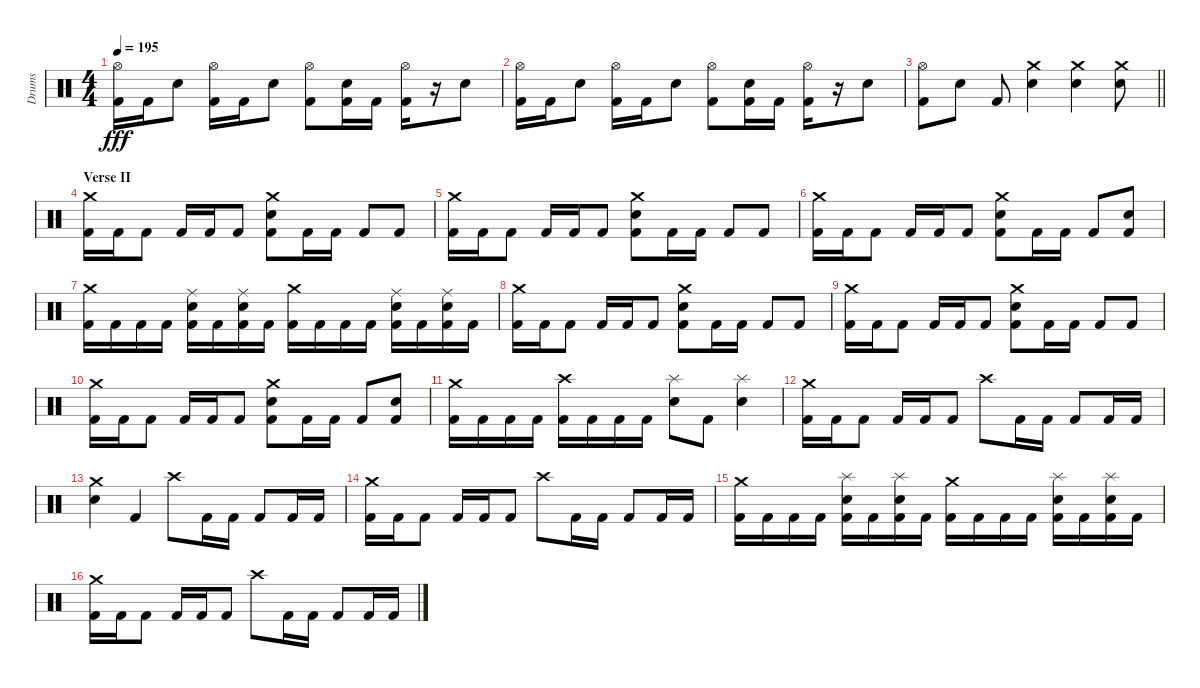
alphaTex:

\track ("Drums" "Drums") {instrument percussion}
\staff {score}
\articulation defaults
\ts (4 4)
\tempo 195
\clef neutral
\ks c
("Hi-Hat (open)" "Kick (hit) 2").16{dy fff} "Kick (hit) 2".16 "Electric Snare (hit)".8 ("Hi-Hat (open)" "Kick (hit) 2").16 "Kick (hit) 2".16 "Electric Snare (hit)".8 ("Hi-Hat (open)" "Kick (hit) 2").8 ("Electric Snare (hit)" "Kick (hit) 2").16 "Kick (hit) 2".16 ("Hi-Hat (open)" "Kick (hit) 2").16 r.16 "Electric Snare (hit)".8 |
("Hi-Hat (open)" "Kick (hit) 2").16 "Kick (hit) 2".16 "Electric Snare (hit)".8 ("Hi-Hat (open)" "Kick (hit) 2").16 "Kick (hit) 2".16 "Electric Snare (hit)".8 ("Hi-Hat (open)" "Kick (hit) 2").8 ("Electric Snare (hit)" "Kick (hit) 2").16 "Kick (hit) 2".16 ("Hi-Hat (open)" "Kick (hit) 2").16 r.16 "Electric Snare (hit)".8 |
\barLineRight lightlight
("Hi-Hat (open)" "Kick (hit) 2").8 "Electric Snare (hit)".8 "Kick (hit) 2".8 ("Crash medium (hit)" "Electric Snare (hit)").4 ("Crash medium (hit)" "Electric Snare (hit)").4 ("Crash medium (hit)" "Electric Snare (hit)").8 |
\section ("" "Verse II")
("Crash medium (hit)" "Kick (hit) 2").16 "Kick (hit) 2".16 "Kick (hit) 2".8 "Kick (hit) 2".16 "Kick (hit) 2".16 "Kick (hit) 2".8 ("Crash medium (hit)" "Electric Snare (hit)" "Kick (hit) 2").8 "Kick (hit) 2".16 "Kick (hit) 2".16 "Kick (hit) 2".8 "Kick (hit) 2".8 |
("Crash medium (hit)" "Kick (hit) 2").16 "Kick (hit) 2".16 "Kick (hit) 2".8 "Kick (hit) 2".16 "Kick (hit) 2".16 "Kick (hit) 2".8 ("Crash medium (hit)" "Electric Snare (hit)" "Kick (hit) 2").8 "Kick (hit) 2".16 "Kick (hit) 2".16 "Kick (hit) 2".8 "Kick (hit) 2".8 |
("Crash medium (hit)" "Kick (hit) 2").16 "Kick (hit) 2".16 "Kick (hit) 2".8 "Kick (hit) 2".16 "Kick (hit) 2".16 "Kick (hit) 2".8 ("Crash medium (hit)" "Electric Snare (hit)" "Kick (hit) 2").8 "Kick (hit) 2".16 "Kick (hit) 2".16 "Kick (hit) 2".8 ("Electric Snare (hit)" "Kick (hit) 2").8 |
("Crash medium (hit)" "Kick (hit) 2").16 "Kick (hit) 2".16 "Kick (hit) 2".16 "Kick (hit) 2".16 ("Ride (middle)" "Electric Snare (hit)" "Kick (hit) 2").16 "Kick (hit) 2".16 ("Ride (middle)" "Electric Snare (hit)" "Kick (hit) 2").16 "Kick (hit) 2".16 ("Crash medium (hit)" "Kick (hit) 2").16 "Kick (hit) 2".16 "Kick (hit) 2".16 "Kick (hit) 2".16 ("Ride (middle)" "Electric Snare (hit)" "Kick (hit) 2").16 "Kick (hit) 2".16 ("Ride (middle)" "Electric Snare (hit)" "Kick (hit) 2").16 "Kick (hit) 2".16 |
("Crash medium (hit)" "Kick (hit) 2").16 "Kick (hit) 2".16 "Kick (hit) 2".8 "Kick (hit) 2".16 "Kick (hit) 2".16 "Kick (hit) 2".8 ("Crash medium (hit)" "Electric Snare (hit)" "Kick (hit) 2").8 "Kick (hit) 2".16 "Kick (hit) 2".16 "Kick (hit) 2".8 "Kick (hit) 2".8 |
("Crash medium (hit)" "Kick (hit) 2").16 "Kick (hit) 2".16 "Kick (hit) 2".8 "Kick (hit) 2".16 "Kick (hit) 2".16 "Kick (hit) 2".8 ("Crash medium (hit)" "Electric Snare (hit)" "Kick (hit) 2").8 "Kick (hit) 2".16 "Kick (hit) 2".16 "Kick (hit) 2".8 "Kick (hit) 2".8 |
("Crash medium (hit)" "Kick (hit) 2").16 "Kick (hit) 2".16 "Kick (hit) 2".8 "Kick (hit) 2".16 "Kick (hit) 2".16 "Kick (hit) 2".8 ("Crash medium (hit)" "Electric Snare (hit)" "Kick (hit) 2").8 "Kick (hit) 2".16 "Kick (hit) 2".16 "Kick (hit) 2".8 ("Electric Snare (hit)" "Kick (hit) 2").8 |
("Crash medium (hit)" "Kick (hit) 2").16 "Kick (hit) 2".16 "Kick (hit) 2".16 "Kick (hit) 2".16 ("Crash high (hit)" "Kick (hit) 2").16 "Kick (hit) 2".16 "Kick (hit) 2".16 "Kick (hit) 2".16 ("Splash (hit)" "Electric Snare (hit)").8 "Kick (hit) 2".8 ("Splash (hit)" "Electric Snare (hit)").4 |
("Crash medium (hit)" "Kick (hit) 2").16 "Kick (hit) 2".16 "Kick (hit) 2".8 "Kick (hit) 2".16 "Kick (hit) 2".16 "Kick (hit) 2".8 "Crash high (hit)".8 "Kick (hit) 2".16 "Kick (hit) 2".16 "Kick (hit) 2".8 "Kick (hit) 2".16 "Kick (hit) 2".16 |
("Crash medium (hit)" "Electric Snare (hit)").4 "Kick (hit) 2".4 "Crash high (hit)".8 "Kick (hit) 2".16 "Kick (hit) 2".16 "Kick (hit) 2".8 "Kick (hit) 2".16 "Kick (hit) 2".16 |
("Crash medium (hit)" "Kick (hit) 2").16 "Kick (hit) 2".16 "Kick (hit) 2".8 "Kick (hit) 2".16 "Kick (hit) 2".16 "Kick (hit) 2".8 "Crash high (hit)".8 "Kick (hit) 2".16 "Kick (hit) 2".16 "Kick (hit) 2".8 "Kick (hit) 2".16 "Kick (hit) 2".16 |
("Crash medium (hit)" "Kick (hit) 2").16 "Kick (hit) 2".16 "Kick (hit) 2".16 "Kick (hit) 2".16 ("Splash (hit)" "Electric Snare (hit)" "Kick (hit) 2").16 "Kick (hit) 2".16 ("Splash (hit)" "Electric Snare (hit)" "Kick (hit) 2").16 "Kick (hit) 2".16 ("Crash medium (hit)" "Kick (hit) 2").16 "Kick (hit) 2".16 "Kick (hit) 2".16 "Kick (hit) 2".16 ("Splash (hit)" "Electric Snare (hit)" "Kick (hit) 2").16 "Kick (hit) 2".16 ("Splash (hit)" "Electric Snare (hit)" "Kick (hit) 2").16 "Kick (hit) 2".16 |
("Crash medium (hit)" "Kick (hit) 2").16 "Kick (hit) 2".16 "Kick (hit) 2".8 "Kick (hit) 2".16 "Kick (hit) 2".16 "Kick (hit) 2".8 "Crash high (hit)".8 "Kick (hit) 2".16 "Kick (hit) 2".16 "Kick (hit) 2".8 "Kick (hit) 2".16 "Kick (hit) 2".16
